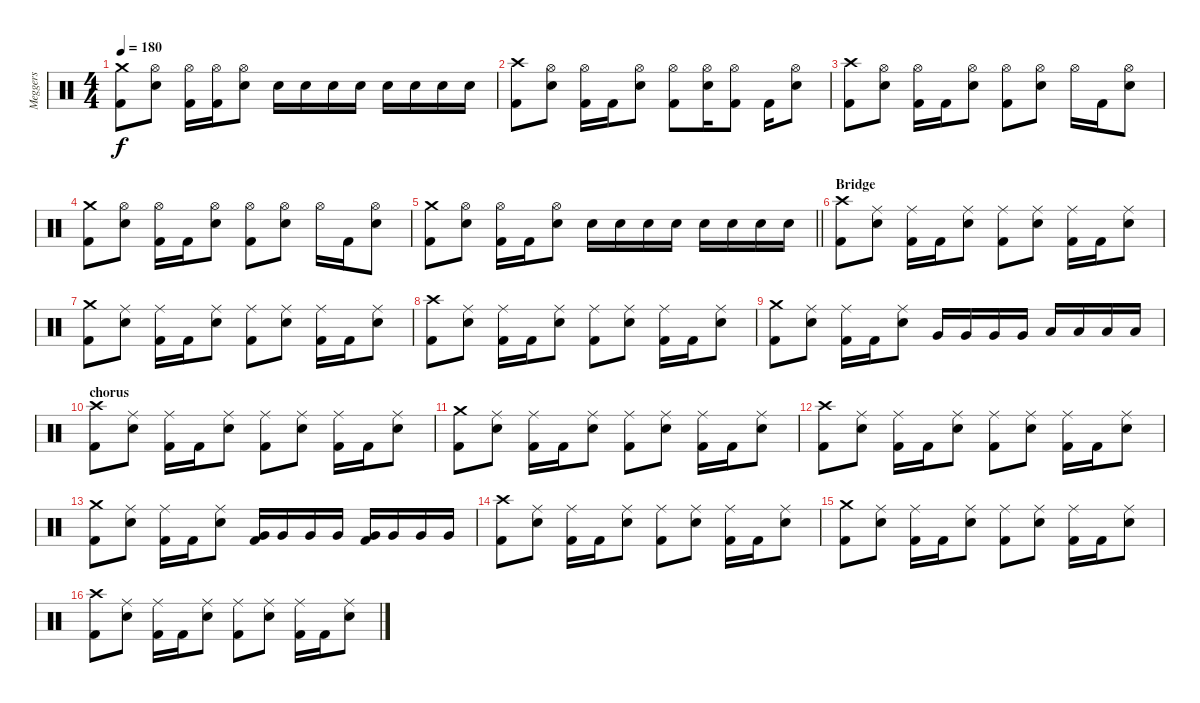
\track ("Meggers" "Meggers") {instrument percussion}
\staff {score}
\articulation defaults
\ts (4 4)
\tempo 180
\clef neutral
\ks c
("Crash medium (hit)" "Kick (hit) 2").8{dy f} ("Hi-Hat (open)" "Snare (hit) 2").8 ("Hi-Hat (open)" "Kick (hit) 2").16 ("Hi-Hat (open)" "Kick (hit) 2").16 ("Hi-Hat (open)" "Snare (hit) 2").8 "Snare (hit) 2".16 "Snare (hit) 2".16 "Snare (hit) 2".16 "Snare (hit) 2".16 "Snare (hit) 2".16 "Snare (hit) 2".16 "Snare (hit) 2".16 "Snare (hit) 2".16 |
("Crash high (hit)" "Kick (hit) 2").8 ("Hi-Hat (open)" "Snare (hit) 2").8 ("Hi-Hat (open)" "Kick (hit) 2").16 "Kick (hit) 2".16 ("Hi-Hat (open)" "Snare (hit) 2").8 ("Hi-Hat (open)" "Kick (hit) 2").8 ("Hi-Hat (open)" "Snare (hit) 2").16 ("Hi-Hat (open)" "Kick (hit) 2").8 "Kick (hit) 2".16 ("Hi-Hat (open)" "Snare (hit) 2").8 |
("Crash high (hit)" "Kick (hit) 2").8 ("Hi-Hat (open)" "Snare (hit) 2").8 ("Hi-Hat (open)" "Kick (hit) 2").16 "Kick (hit) 2".16 ("Hi-Hat (open)" "Snare (hit) 2").8 ("Hi-Hat (open)" "Kick (hit) 2").8 ("Hi-Hat (open)" "Snare (hit) 2").8 "Hi-Hat (open)".16 "Kick (hit) 2".16 ("Hi-Hat (open)" "Snare (hit) 2").8 |
("Crash medium (hit)" "Kick (hit) 2").8 ("Hi-Hat (open)" "Snare (hit) 2").8 ("Hi-Hat (open)" "Kick (hit) 2").16 "Kick (hit) 2".16 ("Hi-Hat (open)" "Snare (hit) 2").8 ("Hi-Hat (open)" "Kick (hit) 2").8 ("Hi-Hat (open)" "Snare (hit) 2").8 "Hi-Hat (open)".16 "Kick (hit) 2".16 ("Hi-Hat (open)" "Snare (hit) 2").8 |
\barLineRight lightlight
("Crash medium (hit)" "Kick (hit) 2").8 ("Hi-Hat (open)" "Snare (hit) 2").8 ("Hi-Hat (open)" "Kick (hit) 2").16 "Kick (hit) 2".16 ("Hi-Hat (open)" "Snare (hit) 2").8 "Snare (hit) 2".16 "Snare (hit) 2".16 "Snare (hit) 2".16 "Snare (hit) 2".16 "Snare (hit) 2".16 "Snare (hit) 2".16 "Snare (hit) 2".16 "Snare (hit) 2".16 |
\section ("" "Bridge")
("Crash high (hit)" "Kick (hit) 2").8 ("Ride (middle)" "Snare (hit) 2").8 ("Ride (middle)" "Kick (hit) 2").16 "Kick (hit) 2".16 ("Ride (middle)" "Snare (hit) 2").8 ("Ride (middle)" "Kick (hit) 2").8 ("Ride (middle)" "Snare (hit) 2").8 ("Ride (middle)" "Kick (hit) 2").16 "Kick (hit) 2".16 ("Ride (middle)" "Snare (hit) 2").8 |
("Crash medium (hit)" "Kick (hit) 2").8 ("Ride (middle)" "Snare (hit) 2").8 ("Ride (middle)" "Kick (hit) 2").16 "Kick (hit) 2".16 ("Ride (middle)" "Snare (hit) 2").8 ("Ride (middle)" "Kick (hit) 2").8 ("Ride (middle)" "Snare (hit) 2").8 ("Ride (middle)" "Kick (hit) 2").16 "Kick (hit) 2".16 ("Ride (middle)" "Snare (hit) 2").8 |
("Crash high (hit)" "Kick (hit) 2").8 ("Ride (middle)" "Snare (hit) 2").8 ("Ride (middle)" "Kick (hit) 2").16 "Kick (hit) 2".16 ("Ride (middle)" "Snare (hit) 2").8 ("Ride (middle)" "Kick (hit) 2").8 ("Ride (middle)" "Snare (hit) 2").8 ("Ride (middle)" "Kick (hit) 2").16 "Kick (hit) 2".16 ("Ride (middle)" "Snare (hit) 2").8 |
("Crash medium (hit)" "Kick (hit) 2").8 ("Ride (middle)" "Snare (hit) 2").8 ("Ride (middle)" "Kick (hit) 2").16 "Kick (hit) 2".16 ("Ride (middle)" "Snare (hit) 2").8 "Very Low Tom (hit)".16 "Very Low Tom (hit)".16 "Very Low Tom (hit)".16 "Very Low Tom (hit)".16 "Low Floor Tom (hit)".16 "Low Floor Tom (hit)".16 "Low Floor Tom (hit)".16 "Low Floor Tom (hit)".16 |
\section ("" "chorus")
("Crash high (hit)" "Kick (hit) 2").8 ("Ride (middle)" "Snare (hit) 2").8 ("Ride (middle)" "Kick (hit) 2").16 "Kick (hit) 2".16 ("Ride (middle)" "Snare (hit) 2").8 ("Ride (middle)" "Kick (hit) 2").8 ("Ride (middle)" "Snare (hit) 2").8 ("Ride (middle)" "Kick (hit) 2").16 "Kick (hit) 2".16 ("Ride (middle)" "Snare (hit) 2").8 |
("Crash medium (hit)" "Kick (hit) 2").8 ("Ride (middle)" "Snare (hit) 2").8 ("Ride (middle)" "Kick (hit) 2").16 "Kick (hit) 2".16 ("Ride (middle)" "Snare (hit) 2").8 ("Ride (middle)" "Kick (hit) 2").8 ("Ride (middle)" "Snare (hit) 2").8 ("Ride (middle)" "Kick (hit) 2").16 "Kick (hit) 2".16 ("Ride (middle)" "Snare (hit) 2").8 |
("Crash high (hit)" "Kick (hit) 2").8 ("Ride (middle)" "Snare (hit) 2").8 ("Ride (middle)" "Kick (hit) 2").16 "Kick (hit) 2".16 ("Ride (middle)" "Snare (hit) 2").8 ("Ride (middle)" "Kick (hit) 2").8 ("Ride (middle)" "Snare (hit) 2").8 ("Ride (middle)" "Kick (hit) 2").16 "Kick (hit) 2".16 ("Ride (middle)" "Snare (hit) 2").8 |
("Crash medium (hit)" "Kick (hit) 2").8 ("Ride (middle)" "Snare (hit) 2").8 ("Ride (middle)" "Kick (hit) 2").16 "Kick (hit) 2".16 ("Ride (middle)" "Snare (hit) 2").8 ("Very Low Tom (hit)" "Kick (hit) 2").16 "Very Low Tom (hit)".16 "Very Low Tom (hit)".16 "Very Low Tom (hit)".16 ("Very Low Tom (hit)" "Kick (hit) 2").16 "Very Low Tom (hit)".16 "Very Low Tom (hit)".16 "Very Low Tom (hit)".16 |
("Crash high (hit)" "Kick (hit) 2").8 ("Ride (middle)" "Snare (hit) 2").8 ("Ride (middle)" "Kick (hit) 2").16 "Kick (hit) 2".16 ("Ride (middle)" "Snare (hit) 2").8 ("Ride (middle)" "Kick (hit) 2").8 ("Ride (middle)" "Snare (hit) 2").8 ("Ride (middle)" "Kick (hit) 2").16 "Kick (hit) 2".16 ("Ride (middle)" "Snare (hit) 2").8 |
("Crash medium (hit)" "Kick (hit) 2").8 ("Ride (middle)" "Snare (hit) 2").8 ("Ride (middle)" "Kick (hit) 2").16 "Kick (hit) 2".16 ("Ride (middle)" "Snare (hit) 2").8 ("Ride (middle)" "Kick (hit) 2").8 ("Ride (middle)" "Snare (hit) 2").8 ("Ride (middle)" "Kick (hit) 2").16 "Kick (hit) 2".16 ("Ride (middle)" "Snare (hit) 2").8 |
("Crash high (hit)" "Kick (hit) 2").8 ("Ride (middle)" "Snare (hit) 2").8 ("Ride (middle)" "Kick (hit) 2").16 "Kick (hit) 2".16 ("Ride (middle)" "Snare (hit) 2").8 ("Ride (middle)" "Kick (hit) 2").8 ("Ride (middle)" "Snare (hit) 2").8 ("Ride (middle)" "Kick (hit) 2").16 "Kick (hit) 2".16 ("Ride (middle)" "Snare (hit) 2").8
